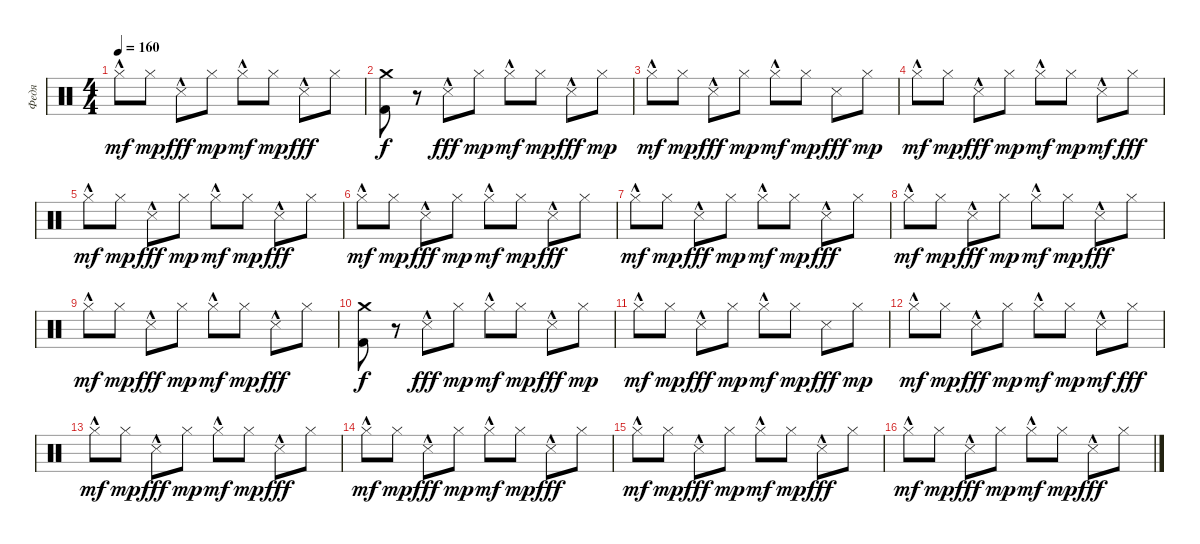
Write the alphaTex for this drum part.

\track ("Федя" "Федя") {instrument percussion}
\staff {score}
\articulation defaults
\ts (4 4)
\tempo 160
\clef neutral
\ks c "Hi-Hat (closed)"{hac}.8{dy mf} "Hi-Hat (closed)".8{dy mp} "Snare (side stick) 3"{hac}.8{dy fff} "Hi-Hat (closed)".8{dy mp} "Hi-Hat (closed)"{hac}.8{dy mf} "Hi-Hat (closed)".8{dy mp} "Snare (side stick) 3"{hac}.8{dy fff} "Hi-Hat (closed)".8
|
("Crash medium (hit)" "Kick (hit) 2").8{dy f} r.8 "Snare (side stick) 3"{hac}.8{dy fff} "Hi-Hat (closed)".8{dy mp} "Hi-Hat (closed)"{hac}.8{dy mf} "Hi-Hat (closed)".8{dy mp} "Snare (side stick) 3"{hac}.8{dy fff} "Hi-Hat (closed)".8{dy mp} |
"Hi-Hat (closed)"{hac}.8{dy mf} "Hi-Hat (closed)".8{dy mp} "Snare (side stick) 3"{hac}.8{dy fff} "Hi-Hat (closed)".8{dy mp} "Hi-Hat (closed)"{hac}.8{dy mf} "Hi-Hat (closed)".8{dy mp} "Snare (side stick) 3".8{dy fff} "Hi-Hat (closed)".8{dy mp} |
"Hi-Hat (closed)"{hac}.8{dy mf} "Hi-Hat (closed)".8{dy mp} "Snare (side stick) 3"{hac}.8{dy fff} "Hi-Hat (closed)".8{dy mp} "Hi-Hat (closed)"{hac}.8{dy mf} "Hi-Hat (closed)".8{dy mp} "Snare (side stick) 3"{hac}.8{dy mf} "Hi-Hat (closed)".8{dy fff} |
"Hi-Hat (closed)"{hac}.8{dy mf} "Hi-Hat (closed)".8{dy mp} "Snare (side stick) 3"{hac}.8{dy fff} "Hi-Hat (closed)".8{dy mp} "Hi-Hat (closed)"{hac}.8{dy mf} "Hi-Hat (closed)".8{dy mp} "Snare (side stick) 3"{hac}.8{dy fff} "Hi-Hat (closed)".8 |
"Hi-Hat (closed)"{hac}.8{dy mf} "Hi-Hat (closed)".8{dy mp} "Snare (side stick) 3"{hac}.8{dy fff} "Hi-Hat (closed)".8{dy mp} "Hi-Hat (closed)"{hac}.8{dy mf} "Hi-Hat (closed)".8{dy mp} "Snare (side stick) 3"{hac}.8{dy fff} "Hi-Hat (closed)".8 |
"Hi-Hat (closed)"{hac}.8{dy mf} "Hi-Hat (closed)".8{dy mp} "Snare (side stick) 3"{hac}.8{dy fff} "Hi-Hat (closed)".8{dy mp} "Hi-Hat (closed)"{hac}.8{dy mf} "Hi-Hat (closed)".8{dy mp} "Snare (side stick) 3"{hac}.8{dy fff} "Hi-Hat (closed)".8 |
"Hi-Hat (closed)"{hac}.8{dy mf} "Hi-Hat (closed)".8{dy mp} "Snare (side stick) 3"{hac}.8{dy fff} "Hi-Hat (closed)".8{dy mp} "Hi-Hat (closed)"{hac}.8{dy mf} "Hi-Hat (closed)".8{dy mp} "Snare (side stick) 3"{hac}.8{dy fff} "Hi-Hat (closed)".8 |
"Hi-Hat (closed)"{hac}.8{dy mf} "Hi-Hat (closed)".8{dy mp} "Snare (side stick) 3"{hac}.8{dy fff} "Hi-Hat (closed)".8{dy mp} "Hi-Hat (closed)"{hac}.8{dy mf} "Hi-Hat (closed)".8{dy mp} "Snare (side stick) 3"{hac}.8{dy fff} "Hi-Hat (closed)".8 |
("Crash medium (hit)" "Kick (hit) 2").8{dy f} r.8 "Snare (side stick) 3"{hac}.8{dy fff} "Hi-Hat (closed)".8{dy mp} "Hi-Hat (closed)"{hac}.8{dy mf} "Hi-Hat (closed)".8{dy mp} "Snare (side stick) 3"{hac}.8{dy fff} "Hi-Hat (closed)".8{dy mp} |
"Hi-Hat (closed)"{hac}.8{dy mf} "Hi-Hat (closed)".8{dy mp} "Snare (side stick) 3"{hac}.8{dy fff} "Hi-Hat (closed)".8{dy mp} "Hi-Hat (closed)"{hac}.8{dy mf} "Hi-Hat (closed)".8{dy mp} "Snare (side stick) 3".8{dy fff} "Hi-Hat (closed)".8{dy mp} |
"Hi-Hat (closed)"{hac}.8{dy mf} "Hi-Hat (closed)".8{dy mp} "Snare (side stick) 3"{hac}.8{dy fff} "Hi-Hat (closed)".8{dy mp} "Hi-Hat (closed)"{hac}.8{dy mf} "Hi-Hat (closed)".8{dy mp} "Snare (side stick) 3"{hac}.8{dy mf} "Hi-Hat (closed)".8{dy fff} |
"Hi-Hat (closed)"{hac}.8{dy mf} "Hi-Hat (closed)".8{dy mp} "Snare (side stick) 3"{hac}.8{dy fff} "Hi-Hat (closed)".8{dy mp} "Hi-Hat (closed)"{hac}.8{dy mf} "Hi-Hat (closed)".8{dy mp} "Snare (side stick) 3"{hac}.8{dy fff} "Hi-Hat (closed)".8 |
"Hi-Hat (closed)"{hac}.8{dy mf} "Hi-Hat (closed)".8{dy mp} "Snare (side stick) 3"{hac}.8{dy fff} "Hi-Hat (closed)".8{dy mp} "Hi-Hat (closed)"{hac}.8{dy mf} "Hi-Hat (closed)".8{dy mp} "Snare (side stick) 3"{hac}.8{dy fff} "Hi-Hat (closed)".8 |
"Hi-Hat (closed)"{hac}.8{dy mf} "Hi-Hat (closed)".8{dy mp} "Snare (side stick) 3"{hac}.8{dy fff} "Hi-Hat (closed)".8{dy mp} "Hi-Hat (closed)"{hac}.8{dy mf} "Hi-Hat (closed)".8{dy mp} "Snare (side stick) 3"{hac}.8{dy fff} "Hi-Hat (closed)".8 |
"Hi-Hat (closed)"{hac}.8{dy mf} "Hi-Hat (closed)".8{dy mp} "Snare (side stick) 3"{hac}.8{dy fff} "Hi-Hat (closed)".8{dy mp} "Hi-Hat (closed)"{hac}.8{dy mf} "Hi-Hat (closed)".8{dy mp} "Snare (side stick) 3"{hac}.8{dy fff} "Hi-Hat (closed)".8
